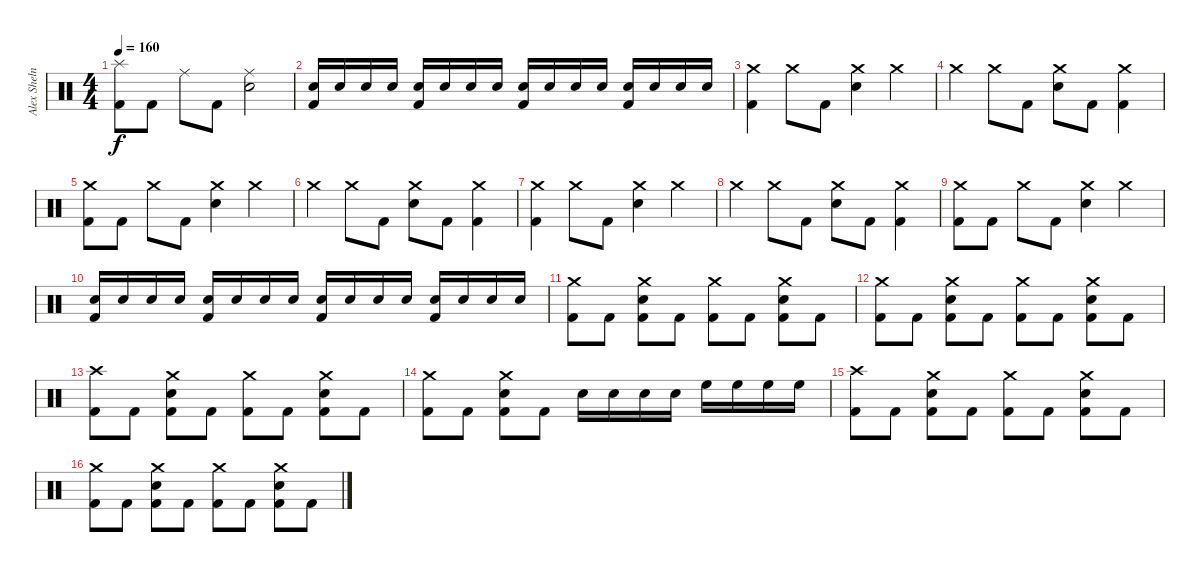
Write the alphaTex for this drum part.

\track ("Alex Shelnutt" "Alex Sheln") {instrument percussion}
\staff {score}
\articulation defaults
\ts (4 4)
\tempo 160
\clef neutral
\ks c
("Splash (hit)" "Kick (hit) 2").8{dy f} "Kick (hit) 2".8 "Ride (middle)".8 "Kick (hit) 2".8 ("Ride (middle)" "Electric Snare (hit)").2 |
("Electric Snare (hit)" "Kick (hit) 2").16 "Electric Snare (hit)".16 "Electric Snare (hit)".16 "Electric Snare (hit)".16 ("Electric Snare (hit)" "Kick (hit) 2").16 "Electric Snare (hit)".16 "Electric Snare (hit)".16 "Electric Snare (hit)".16 ("Electric Snare (hit)" "Kick (hit) 2").16 "Electric Snare (hit)".16 "Electric Snare (hit)".16 "Electric Snare (hit)".16 ("Electric Snare (hit)" "Kick (hit) 2").16 "Electric Snare (hit)".16 "Electric Snare (hit)".16 "Electric Snare (hit)".16 |
("Crash medium (hit)" "Kick (hit) 2").4 "Crash medium (hit)".8 "Kick (hit) 2".8 ("Crash medium (hit)" "Electric Snare (hit)").4 "Crash medium (hit)".4 |
"Crash medium (hit)".4 "Crash medium (hit)".8 "Kick (hit) 2".8 ("Crash medium (hit)" "Electric Snare (hit)").8 "Kick (hit) 2".8 ("Crash medium (hit)" "Kick (hit) 2").4 |
("Crash medium (hit)" "Kick (hit) 2").8 "Kick (hit) 2".8 "Crash medium (hit)".8 "Kick (hit) 2".8 ("Crash medium (hit)" "Electric Snare (hit)").4 "Crash medium (hit)".4 |
"Crash medium (hit)".4 "Crash medium (hit)".8 "Kick (hit) 2".8 ("Crash medium (hit)" "Electric Snare (hit)").8 "Kick (hit) 2".8 ("Crash medium (hit)" "Kick (hit) 2").4 |
("Crash medium (hit)" "Kick (hit) 2").4 "Crash medium (hit)".8 "Kick (hit) 2".8 ("Crash medium (hit)" "Electric Snare (hit)").4 "Crash medium (hit)".4 |
"Crash medium (hit)".4 "Crash medium (hit)".8 "Kick (hit) 2".8 ("Crash medium (hit)" "Electric Snare (hit)").8 "Kick (hit) 2".8 ("Crash medium (hit)" "Kick (hit) 2").4 |
("Crash medium (hit)" "Kick (hit) 2").8 "Kick (hit) 2".8 "Crash medium (hit)".8 "Kick (hit) 2".8 ("Crash medium (hit)" "Electric Snare (hit)").4 "Crash medium (hit)".4 |
("Electric Snare (hit)" "Kick (hit) 2").16 "Electric Snare (hit)".16 "Electric Snare (hit)".16 "Electric Snare (hit)".16 ("Electric Snare (hit)" "Kick (hit) 2").16 "Electric Snare (hit)".16 "Electric Snare (hit)".16 "Electric Snare (hit)".16 ("Electric Snare (hit)" "Kick (hit) 2").16 "Electric Snare (hit)".16 "Electric Snare (hit)".16 "Electric Snare (hit)".16 ("Electric Snare (hit)" "Kick (hit) 2").16 "Electric Snare (hit)".16 "Electric Snare (hit)".16 "Electric Snare (hit)".16 |
("Crash medium (hit)" "Kick (hit) 2").8 "Kick (hit) 2".8 ("Crash medium (hit)" "Electric Snare (hit)" "Kick (hit) 2").8 "Kick (hit) 2".8 ("Crash medium (hit)" "Kick (hit) 2").8 "Kick (hit) 2".8 ("Crash medium (hit)" "Electric Snare (hit)" "Kick (hit) 2").8 "Kick (hit) 2".8 |
("Crash medium (hit)" "Kick (hit) 2").8 "Kick (hit) 2".8 ("Crash medium (hit)" "Electric Snare (hit)" "Kick (hit) 2").8 "Kick (hit) 2".8 ("Crash medium (hit)" "Kick (hit) 2").8 "Kick (hit) 2".8 ("Crash medium (hit)" "Electric Snare (hit)" "Kick (hit) 2").8 "Kick (hit) 2".8 |
("Crash high (hit)" "Kick (hit) 2").8 "Kick (hit) 2".8 ("Crash medium (hit)" "Electric Snare (hit)" "Kick (hit) 2").8 "Kick (hit) 2".8 ("Crash medium (hit)" "Kick (hit) 2").8 "Kick (hit) 2".8 ("Crash medium (hit)" "Electric Snare (hit)" "Kick (hit) 2").8 "Kick (hit) 2".8 |
("Crash medium (hit)" "Kick (hit) 2").8 "Kick (hit) 2".8 ("Crash medium (hit)" "Electric Snare (hit)" "Kick (hit) 2").8 "Kick (hit) 2".8 "Electric Snare (hit)".16 "Electric Snare (hit)".16 "Electric Snare (hit)".16 "Electric Snare (hit)".16 "High Floor Tom (hit)".16 "High Floor Tom (hit)".16 "High Floor Tom (hit)".16 "High Floor Tom (hit)".16 |
("Crash high (hit)" "Kick (hit) 2").8 "Kick (hit) 2".8 ("Crash medium (hit)" "Electric Snare (hit)" "Kick (hit) 2").8 "Kick (hit) 2".8 ("Crash medium (hit)" "Kick (hit) 2").8 "Kick (hit) 2".8 ("Crash medium (hit)" "Electric Snare (hit)" "Kick (hit) 2").8 "Kick (hit) 2".8 |
("Crash medium (hit)" "Kick (hit) 2").8 "Kick (hit) 2".8 ("Crash medium (hit)" "Electric Snare (hit)" "Kick (hit) 2").8 "Kick (hit) 2".8 ("Crash medium (hit)" "Kick (hit) 2").8 "Kick (hit) 2".8 ("Crash medium (hit)" "Electric Snare (hit)" "Kick (hit) 2").8 "Kick (hit) 2".8
